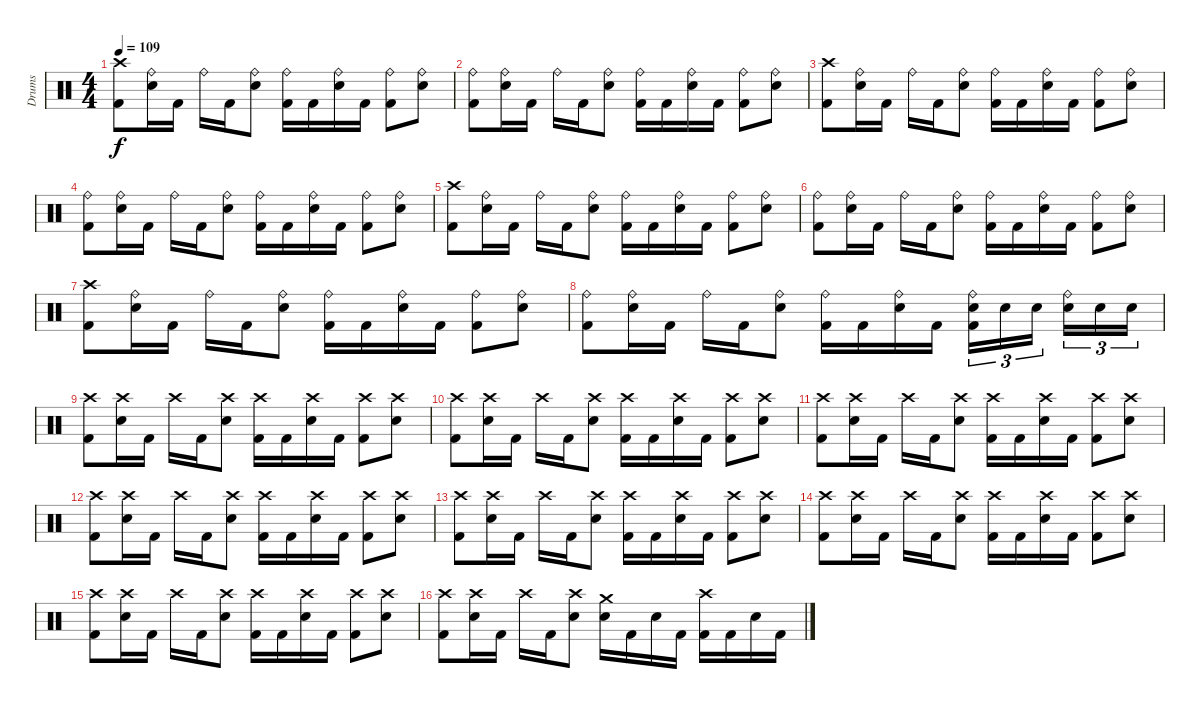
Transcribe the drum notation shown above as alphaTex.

\track ("Drums" "Drums") {instrument percussion}
\staff {score}
\articulation defaults
\ts (4 4)
\tempo 109
\clef neutral
\ks c
("Kick (hit) 2" "Crash high (hit)").8{dy f} ("Electric Snare (hit)" "Ride (bell)").16 "Kick (hit) 2".16 "Ride (bell)".16 "Kick (hit) 2".16 ("Electric Snare (hit)" "Ride (bell)").8 ("Kick (hit) 2" "Ride (bell)").16 "Kick (hit) 2".16 ("Electric Snare (hit)" "Ride (bell)").16 "Kick (hit) 2".16 ("Kick (hit) 2" "Ride (bell)").8 ("Electric Snare (hit)" "Ride (bell)").8 |
("Kick (hit) 2" "Ride (bell)").8 ("Electric Snare (hit)" "Ride (bell)").16 "Kick (hit) 2".16 "Ride (bell)".16 "Kick (hit) 2".16 ("Electric Snare (hit)" "Ride (bell)").8 ("Kick (hit) 2" "Ride (bell)").16 "Kick (hit) 2".16 ("Electric Snare (hit)" "Ride (bell)").16 "Kick (hit) 2".16 ("Kick (hit) 2" "Ride (bell)").8 ("Electric Snare (hit)" "Ride (bell)").8 |
("Kick (hit) 2" "Crash high (hit)").8 ("Electric Snare (hit)" "Ride (bell)").16 "Kick (hit) 2".16 "Ride (bell)".16 "Kick (hit) 2".16 ("Electric Snare (hit)" "Ride (bell)").8 ("Kick (hit) 2" "Ride (bell)").16 "Kick (hit) 2".16 ("Electric Snare (hit)" "Ride (bell)").16 "Kick (hit) 2".16 ("Kick (hit) 2" "Ride (bell)").8 ("Electric Snare (hit)" "Ride (bell)").8 |
("Kick (hit) 2" "Ride (bell)").8 ("Electric Snare (hit)" "Ride (bell)").16 "Kick (hit) 2".16 "Ride (bell)".16 "Kick (hit) 2".16 ("Electric Snare (hit)" "Ride (bell)").8 ("Kick (hit) 2" "Ride (bell)").16 "Kick (hit) 2".16 ("Electric Snare (hit)" "Ride (bell)").16 "Kick (hit) 2".16 ("Kick (hit) 2" "Ride (bell)").8 ("Electric Snare (hit)" "Ride (bell)").8 |
("Kick (hit) 2" "Crash high (hit)").8 ("Electric Snare (hit)" "Ride (bell)").16 "Kick (hit) 2".16 "Ride (bell)".16 "Kick (hit) 2".16 ("Electric Snare (hit)" "Ride (bell)").8 ("Kick (hit) 2" "Ride (bell)").16 "Kick (hit) 2".16 ("Electric Snare (hit)" "Ride (bell)").16 "Kick (hit) 2".16 ("Kick (hit) 2" "Ride (bell)").8 ("Electric Snare (hit)" "Ride (bell)").8 |
("Kick (hit) 2" "Ride (bell)").8 ("Electric Snare (hit)" "Ride (bell)").16 "Kick (hit) 2".16 "Ride (bell)".16 "Kick (hit) 2".16 ("Electric Snare (hit)" "Ride (bell)").8 ("Kick (hit) 2" "Ride (bell)").16 "Kick (hit) 2".16 ("Electric Snare (hit)" "Ride (bell)").16 "Kick (hit) 2".16 ("Kick (hit) 2" "Ride (bell)").8 ("Electric Snare (hit)" "Ride (bell)").8 |
("Kick (hit) 2" "Crash high (hit)").8 ("Electric Snare (hit)" "Ride (bell)").16 "Kick (hit) 2".16 "Ride (bell)".16 "Kick (hit) 2".16 ("Electric Snare (hit)" "Ride (bell)").8 ("Kick (hit) 2" "Ride (bell)").16 "Kick (hit) 2".16 ("Electric Snare (hit)" "Ride (bell)").16 "Kick (hit) 2".16 ("Kick (hit) 2" "Ride (bell)").8 ("Electric Snare (hit)" "Ride (bell)").8 |
("Kick (hit) 2" "Ride (bell)").8 ("Electric Snare (hit)" "Ride (bell)").16 "Kick (hit) 2".16 "Ride (bell)".16 "Kick (hit) 2".16 ("Electric Snare (hit)" "Ride (bell)").8 ("Kick (hit) 2" "Ride (bell)").16 "Kick (hit) 2".16 ("Electric Snare (hit)" "Ride (bell)").16 "Kick (hit) 2".16 ("Electric Snare (hit)" "Kick (hit) 2" "Ride (bell)").16{tu (3 2)} "Electric Snare (hit)".16{tu (3 2)} "Electric Snare (hit)".16{tu (3 2)} ("Electric Snare (hit)" "Ride (bell)").16{tu (3 2)} "Electric Snare (hit)".16{tu (3 2)} "Electric Snare (hit)".16{tu (3 2)} |
("Kick (hit) 2" "Crash high (hit)").8 ("Electric Snare (hit)" "Crash high (hit)").16 "Kick (hit) 2".16 "Crash high (hit)".16 "Kick (hit) 2".16 ("Electric Snare (hit)" "Crash high (hit)").8 ("Kick (hit) 2" "Crash high (hit)").16 "Kick (hit) 2".16 ("Electric Snare (hit)" "Crash high (hit)").16 "Kick (hit) 2".16 ("Kick (hit) 2" "Crash high (hit)").8 ("Electric Snare (hit)" "Crash high (hit)").8 |
("Kick (hit) 2" "Crash high (hit)").8 ("Electric Snare (hit)" "Crash high (hit)").16 "Kick (hit) 2".16 "Crash high (hit)".16 "Kick (hit) 2".16 ("Electric Snare (hit)" "Crash high (hit)").8 ("Kick (hit) 2" "Crash high (hit)").16 "Kick (hit) 2".16 ("Electric Snare (hit)" "Crash high (hit)").16 "Kick (hit) 2".16 ("Kick (hit) 2" "Crash high (hit)").8 ("Electric Snare (hit)" "Crash high (hit)").8 |
("Kick (hit) 2" "Crash high (hit)").8 ("Electric Snare (hit)" "Crash high (hit)").16 "Kick (hit) 2".16 "Crash high (hit)".16 "Kick (hit) 2".16 ("Electric Snare (hit)" "Crash high (hit)").8 ("Kick (hit) 2" "Crash high (hit)").16 "Kick (hit) 2".16 ("Electric Snare (hit)" "Crash high (hit)").16 "Kick (hit) 2".16 ("Kick (hit) 2" "Crash high (hit)").8 ("Electric Snare (hit)" "Crash high (hit)").8 |
("Kick (hit) 2" "Crash high (hit)").8 ("Electric Snare (hit)" "Crash high (hit)").16 "Kick (hit) 2".16 "Crash high (hit)".16 "Kick (hit) 2".16 ("Electric Snare (hit)" "Crash high (hit)").8 ("Kick (hit) 2" "Crash high (hit)").16 "Kick (hit) 2".16 ("Electric Snare (hit)" "Crash high (hit)").16 "Kick (hit) 2".16 ("Kick (hit) 2" "Crash high (hit)").8 ("Electric Snare (hit)" "Crash high (hit)").8 |
("Kick (hit) 2" "Crash high (hit)").8 ("Electric Snare (hit)" "Crash high (hit)").16 "Kick (hit) 2".16 "Crash high (hit)".16 "Kick (hit) 2".16 ("Electric Snare (hit)" "Crash high (hit)").8 ("Kick (hit) 2" "Crash high (hit)").16 "Kick (hit) 2".16 ("Electric Snare (hit)" "Crash high (hit)").16 "Kick (hit) 2".16 ("Kick (hit) 2" "Crash high (hit)").8 ("Electric Snare (hit)" "Crash high (hit)").8 |
("Kick (hit) 2" "Crash high (hit)").8 ("Electric Snare (hit)" "Crash high (hit)").16 "Kick (hit) 2".16 "Crash high (hit)".16 "Kick (hit) 2".16 ("Electric Snare (hit)" "Crash high (hit)").8 ("Kick (hit) 2" "Crash high (hit)").16 "Kick (hit) 2".16 ("Electric Snare (hit)" "Crash high (hit)").16 "Kick (hit) 2".16 ("Kick (hit) 2" "Crash high (hit)").8 ("Electric Snare (hit)" "Crash high (hit)").8 |
("Kick (hit) 2" "Crash high (hit)").8 ("Electric Snare (hit)" "Crash high (hit)").16 "Kick (hit) 2".16 "Crash high (hit)".16 "Kick (hit) 2".16 ("Electric Snare (hit)" "Crash high (hit)").8 ("Kick (hit) 2" "Crash high (hit)").16 "Kick (hit) 2".16 ("Electric Snare (hit)" "Crash high (hit)").16 "Kick (hit) 2".16 ("Kick (hit) 2" "Crash high (hit)").8 ("Electric Snare (hit)" "Crash high (hit)").8 |
("Kick (hit) 2" "Crash high (hit)").8 ("Electric Snare (hit)" "Crash high (hit)").16 "Kick (hit) 2".16 "Crash high (hit)".16 "Kick (hit) 2".16 ("Electric Snare (hit)" "Crash high (hit)").8 ("Electric Snare (hit)" "Crash medium (hit)").16 "Kick (hit) 2".16 "Electric Snare (hit)".16 "Kick (hit) 2".16 ("Kick (hit) 2" "Crash high (hit)").16 "Kick (hit) 2".16 "Electric Snare (hit)".16 "Kick (hit) 2".16
